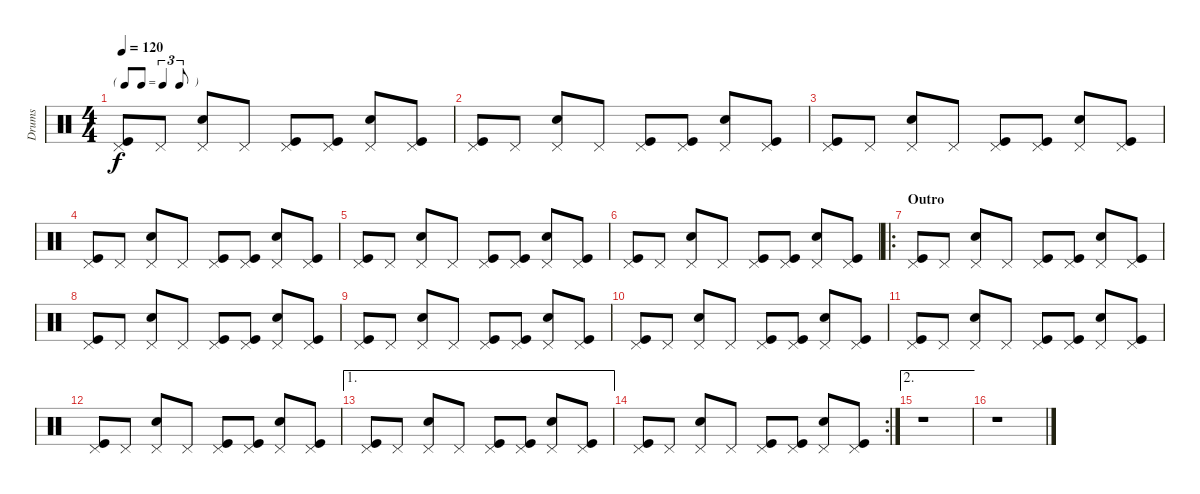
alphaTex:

\track ("Drums" "Drums") {instrument percussion}
\staff {score}
\articulation defaults
\ts (4 4)
\tf triplet8th
\tempo 120
\clef neutral
\ks c
("Pedal Hi-Hat (hit)" "Kick (hit)").8{dy f} "Pedal Hi-Hat (hit)".8 ("Pedal Hi-Hat (hit)" "Snare (hit) 2").8 "Pedal Hi-Hat (hit)".8 ("Pedal Hi-Hat (hit)" "Kick (hit)").8 ("Pedal Hi-Hat (hit)" "Kick (hit)").8 ("Pedal Hi-Hat (hit)" "Snare (hit) 2").8 ("Pedal Hi-Hat (hit)" "Kick (hit)").8 |
("Pedal Hi-Hat (hit)" "Kick (hit)").8 "Pedal Hi-Hat (hit)".8 ("Pedal Hi-Hat (hit)" "Snare (hit) 2").8 "Pedal Hi-Hat (hit)".8 ("Pedal Hi-Hat (hit)" "Kick (hit)").8 ("Pedal Hi-Hat (hit)" "Kick (hit)").8 ("Pedal Hi-Hat (hit)" "Snare (hit) 2").8 ("Pedal Hi-Hat (hit)" "Kick (hit)").8 |
("Pedal Hi-Hat (hit)" "Kick (hit)").8 "Pedal Hi-Hat (hit)".8 ("Pedal Hi-Hat (hit)" "Snare (hit) 2").8 "Pedal Hi-Hat (hit)".8 ("Pedal Hi-Hat (hit)" "Kick (hit)").8 ("Pedal Hi-Hat (hit)" "Kick (hit)").8 ("Pedal Hi-Hat (hit)" "Snare (hit) 2").8 ("Pedal Hi-Hat (hit)" "Kick (hit)").8 |
("Pedal Hi-Hat (hit)" "Kick (hit)").8 "Pedal Hi-Hat (hit)".8 ("Pedal Hi-Hat (hit)" "Snare (hit) 2").8 "Pedal Hi-Hat (hit)".8 ("Pedal Hi-Hat (hit)" "Kick (hit)").8 ("Pedal Hi-Hat (hit)" "Kick (hit)").8 ("Pedal Hi-Hat (hit)" "Snare (hit) 2").8 ("Pedal Hi-Hat (hit)" "Kick (hit)").8 |
("Pedal Hi-Hat (hit)" "Kick (hit)").8 "Pedal Hi-Hat (hit)".8 ("Pedal Hi-Hat (hit)" "Snare (hit) 2").8 "Pedal Hi-Hat (hit)".8 ("Pedal Hi-Hat (hit)" "Kick (hit)").8 ("Pedal Hi-Hat (hit)" "Kick (hit)").8 ("Pedal Hi-Hat (hit)" "Snare (hit) 2").8 ("Pedal Hi-Hat (hit)" "Kick (hit)").8 |
("Pedal Hi-Hat (hit)" "Kick (hit)").8 "Pedal Hi-Hat (hit)".8 ("Pedal Hi-Hat (hit)" "Snare (hit) 2").8 "Pedal Hi-Hat (hit)".8 ("Pedal Hi-Hat (hit)" "Kick (hit)").8 ("Pedal Hi-Hat (hit)" "Kick (hit)").8 ("Pedal Hi-Hat (hit)" "Snare (hit) 2").8 ("Pedal Hi-Hat (hit)" "Kick (hit)").8 |
\ro
\section ("" "Outro")
("Pedal Hi-Hat (hit)" "Kick (hit)").8 "Pedal Hi-Hat (hit)".8 ("Pedal Hi-Hat (hit)" "Snare (hit) 2").8 "Pedal Hi-Hat (hit)".8 ("Pedal Hi-Hat (hit)" "Kick (hit)").8 ("Pedal Hi-Hat (hit)" "Kick (hit)").8 ("Pedal Hi-Hat (hit)" "Snare (hit) 2").8 ("Pedal Hi-Hat (hit)" "Kick (hit)").8 |
("Pedal Hi-Hat (hit)" "Kick (hit)").8 "Pedal Hi-Hat (hit)".8 ("Pedal Hi-Hat (hit)" "Snare (hit) 2").8 "Pedal Hi-Hat (hit)".8 ("Pedal Hi-Hat (hit)" "Kick (hit)").8 ("Pedal Hi-Hat (hit)" "Kick (hit)").8 ("Pedal Hi-Hat (hit)" "Snare (hit) 2").8 ("Pedal Hi-Hat (hit)" "Kick (hit)").8 |
("Pedal Hi-Hat (hit)" "Kick (hit)").8 "Pedal Hi-Hat (hit)".8 ("Pedal Hi-Hat (hit)" "Snare (hit) 2").8 "Pedal Hi-Hat (hit)".8 ("Pedal Hi-Hat (hit)" "Kick (hit)").8 ("Pedal Hi-Hat (hit)" "Kick (hit)").8 ("Pedal Hi-Hat (hit)" "Snare (hit) 2").8 ("Pedal Hi-Hat (hit)" "Kick (hit)").8 |
("Pedal Hi-Hat (hit)" "Kick (hit)").8 "Pedal Hi-Hat (hit)".8 ("Pedal Hi-Hat (hit)" "Snare (hit) 2").8 "Pedal Hi-Hat (hit)".8 ("Pedal Hi-Hat (hit)" "Kick (hit)").8 ("Pedal Hi-Hat (hit)" "Kick (hit)").8 ("Pedal Hi-Hat (hit)" "Snare (hit) 2").8 ("Pedal Hi-Hat (hit)" "Kick (hit)").8 |
("Pedal Hi-Hat (hit)" "Kick (hit)").8 "Pedal Hi-Hat (hit)".8 ("Pedal Hi-Hat (hit)" "Snare (hit) 2").8 "Pedal Hi-Hat (hit)".8 ("Pedal Hi-Hat (hit)" "Kick (hit)").8 ("Pedal Hi-Hat (hit)" "Kick (hit)").8 ("Pedal Hi-Hat (hit)" "Snare (hit) 2").8 ("Pedal Hi-Hat (hit)" "Kick (hit)").8 |
("Pedal Hi-Hat (hit)" "Kick (hit)").8 "Pedal Hi-Hat (hit)".8 ("Pedal Hi-Hat (hit)" "Snare (hit) 2").8 "Pedal Hi-Hat (hit)".8 ("Pedal Hi-Hat (hit)" "Kick (hit)").8 ("Pedal Hi-Hat (hit)" "Kick (hit)").8 ("Pedal Hi-Hat (hit)" "Snare (hit) 2").8 ("Pedal Hi-Hat (hit)" "Kick (hit)").8 |
\ae 1
("Pedal Hi-Hat (hit)" "Kick (hit)").8 "Pedal Hi-Hat (hit)".8 ("Pedal Hi-Hat (hit)" "Snare (hit) 2").8 "Pedal Hi-Hat (hit)".8 ("Pedal Hi-Hat (hit)" "Kick (hit)").8 ("Pedal Hi-Hat (hit)" "Kick (hit)").8 ("Pedal Hi-Hat (hit)" "Snare (hit) 2").8 ("Pedal Hi-Hat (hit)" "Kick (hit)").8 |
\rc 2
("Pedal Hi-Hat (hit)" "Kick (hit)").8 "Pedal Hi-Hat (hit)".8 ("Pedal Hi-Hat (hit)" "Snare (hit) 2").8 "Pedal Hi-Hat (hit)".8 ("Pedal Hi-Hat (hit)" "Kick (hit)").8 ("Pedal Hi-Hat (hit)" "Kick (hit)").8 ("Pedal Hi-Hat (hit)" "Snare (hit) 2").8 ("Pedal Hi-Hat (hit)" "Kick (hit)").8 |
\ae 2
r.1 |
r.1
